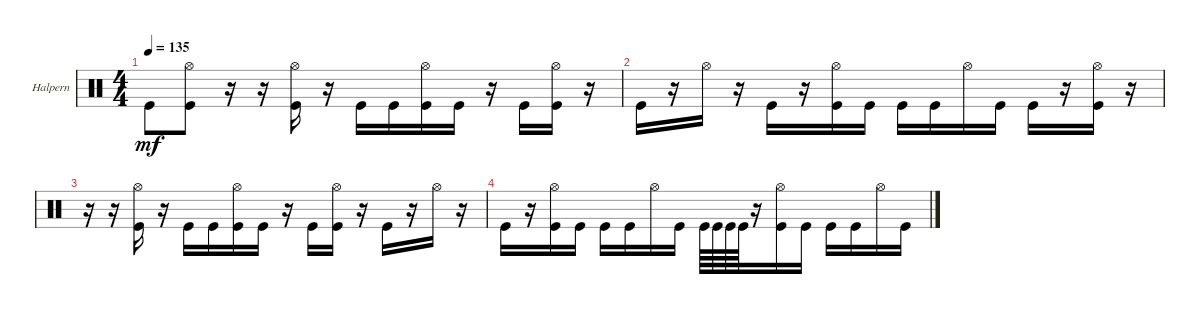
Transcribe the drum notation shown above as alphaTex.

\defaultSystemsLayout 4
\bracketExtendMode groupsimilarinstruments
\multiBarRest
\firstSystemTrackNameOrientation horizontal
\otherSystemsTrackNameOrientation horizontal
\track ("Matt Halpern" "Halpern") {instrument percussion}
\staff {score}
\articulation defaults
\ts (4 4)
\tempo 135
\clef neutral
\ks c "Kick (hit)".8{dy mf}
("Kick (hit)" "Hi-Hat (open)").8 r.16 r.16 ("Kick (hit)" "Hi-Hat (open)").16 r.16 "Kick (hit)".16 "Kick (hit)".16 ("Kick (hit)" "Hi-Hat (open)").16 "Kick (hit)".16 r.16 "Kick (hit)".16 ("Kick (hit)" "Hi-Hat (open)").16 r.16 |
"Kick (hit)".16 r.16 "Hi-Hat (open)".16 r.16 "Kick (hit)".16 r.16 ("Kick (hit)" "Hi-Hat (open)").16 "Kick (hit)".16 "Kick (hit)".16 "Kick (hit)".16 "Hi-Hat (open)".16 "Kick (hit)".16 "Kick (hit)".16 r.16 ("Kick (hit)" "Hi-Hat (open)").16 r.16 |
r.16 r.16 ("Kick (hit)" "Hi-Hat (open)").16 r.16 "Kick (hit)".16 "Kick (hit)".16 ("Kick (hit)" "Hi-Hat (open)").16 "Kick (hit)".16 r.16 "Kick (hit)".16 ("Kick (hit)" "Hi-Hat (open)").16 r.16 "Kick (hit)".16 r.16 "Hi-Hat (open)".16 r.16 |
"Kick (hit)".16 r.16 ("Kick (hit)" "Hi-Hat (open)").16 "Kick (hit)".16 "Kick (hit)".16 "Kick (hit)".16 "Hi-Hat (open)".16 "Kick (hit)".16 "Kick (hit)".64 "Kick (hit)".64 "Kick (hit)".64 "Kick (hit)".64 r.16 ("Kick (hit)" "Hi-Hat (open)").16 "Kick (hit)".16 "Kick (hit)".16 "Kick (hit)".16 "Hi-Hat (open)".16 "Kick (hit)".16
